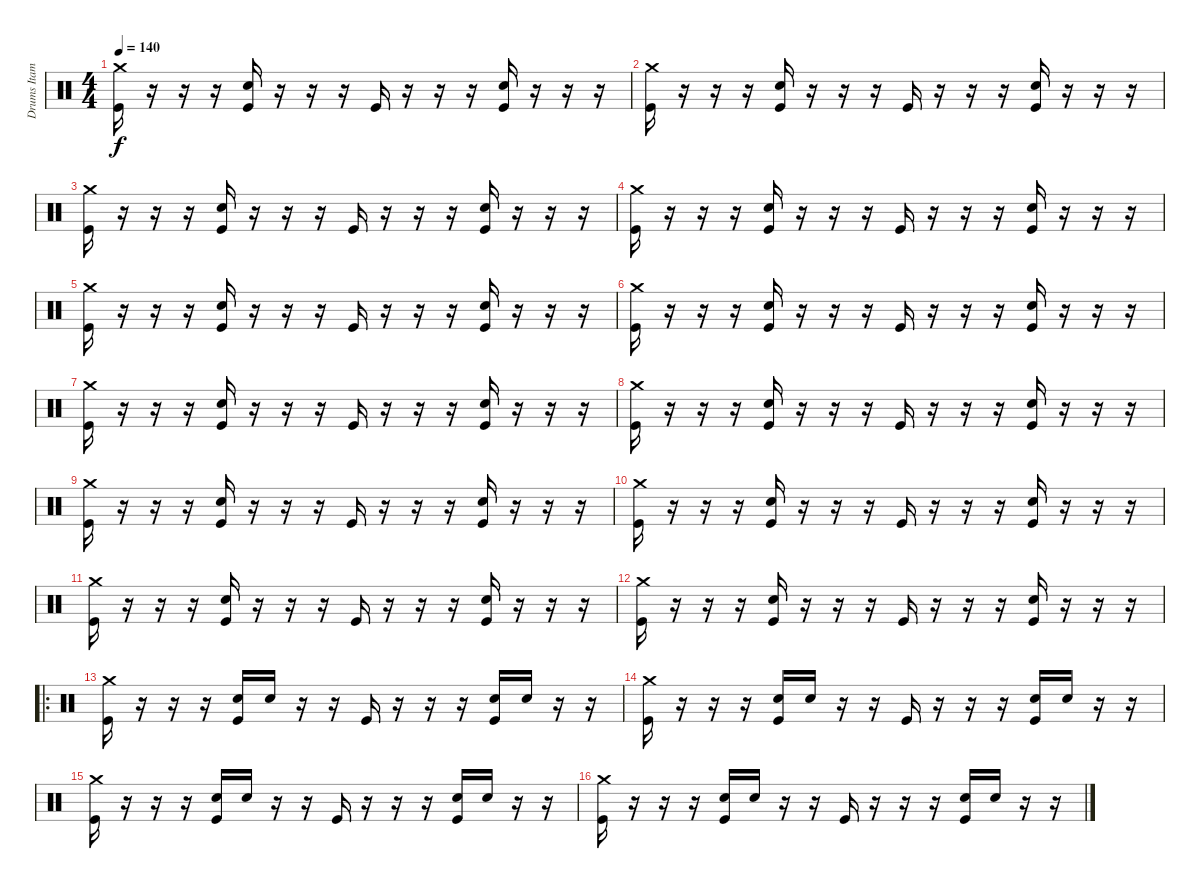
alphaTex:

\track ("Drums Itamar" "Drums Itam") {instrument percussion}
\staff {score}
\articulation defaults
\ts (4 4)
\tempo 140
\clef neutral
\ks c
("Kick (hit)" "Crash medium (hit)").16{dy f} r.16 r.16 r.16 ("Kick (hit)" "Snare (hit) 2").16 r.16 r.16 r.16 "Kick (hit)".16 r.16 r.16 r.16 ("Kick (hit)" "Snare (hit) 2").16 r.16 r.16 r.16 |
("Kick (hit)" "Crash medium (hit)").16 r.16 r.16 r.16 ("Kick (hit)" "Snare (hit) 2").16 r.16 r.16 r.16 "Kick (hit)".16 r.16 r.16 r.16 ("Kick (hit)" "Snare (hit) 2").16 r.16 r.16 r.16 |
("Kick (hit)" "Crash medium (hit)").16 r.16 r.16 r.16 ("Kick (hit)" "Snare (hit) 2").16 r.16 r.16 r.16 "Kick (hit)".16 r.16 r.16 r.16 ("Kick (hit)" "Snare (hit) 2").16 r.16 r.16 r.16 |
("Kick (hit)" "Crash medium (hit)").16 r.16 r.16 r.16 ("Kick (hit)" "Snare (hit) 2").16 r.16 r.16 r.16 "Kick (hit)".16 r.16 r.16 r.16 ("Kick (hit)" "Snare (hit) 2").16 r.16 r.16 r.16 |
("Kick (hit)" "Crash medium (hit)").16 r.16 r.16 r.16 ("Kick (hit)" "Snare (hit) 2").16 r.16 r.16 r.16 "Kick (hit)".16 r.16 r.16 r.16 ("Kick (hit)" "Snare (hit) 2").16 r.16 r.16 r.16 |
("Kick (hit)" "Crash medium (hit)").16 r.16 r.16 r.16 ("Kick (hit)" "Snare (hit) 2").16 r.16 r.16 r.16 "Kick (hit)".16 r.16 r.16 r.16 ("Kick (hit)" "Snare (hit) 2").16 r.16 r.16 r.16 |
("Kick (hit)" "Crash medium (hit)").16 r.16 r.16 r.16 ("Kick (hit)" "Snare (hit) 2").16 r.16 r.16 r.16 "Kick (hit)".16 r.16 r.16 r.16 ("Kick (hit)" "Snare (hit) 2").16 r.16 r.16 r.16 |
("Kick (hit)" "Crash medium (hit)").16 r.16 r.16 r.16 ("Kick (hit)" "Snare (hit) 2").16 r.16 r.16 r.16 "Kick (hit)".16 r.16 r.16 r.16 ("Kick (hit)" "Snare (hit) 2").16 r.16 r.16 r.16 |
("Kick (hit)" "Crash medium (hit)").16 r.16 r.16 r.16 ("Kick (hit)" "Snare (hit) 2").16 r.16 r.16 r.16 "Kick (hit)".16 r.16 r.16 r.16 ("Kick (hit)" "Snare (hit) 2").16 r.16 r.16 r.16 |
("Kick (hit)" "Crash medium (hit)").16 r.16 r.16 r.16 ("Kick (hit)" "Snare (hit) 2").16 r.16 r.16 r.16 "Kick (hit)".16 r.16 r.16 r.16 ("Kick (hit)" "Snare (hit) 2").16 r.16 r.16 r.16 |
("Kick (hit)" "Crash medium (hit)").16 r.16 r.16 r.16 ("Kick (hit)" "Snare (hit) 2").16 r.16 r.16 r.16 "Kick (hit)".16 r.16 r.16 r.16 ("Kick (hit)" "Snare (hit) 2").16 r.16 r.16 r.16 |
("Kick (hit)" "Crash medium (hit)").16 r.16 r.16 r.16 ("Kick (hit)" "Snare (hit) 2").16 r.16 r.16 r.16 "Kick (hit)".16 r.16 r.16 r.16 ("Kick (hit)" "Snare (hit) 2").16 r.16 r.16 r.16 |
\ro
("Kick (hit)" "Crash medium (hit)").16 r.16 r.16 r.16 ("Kick (hit)" "Snare (hit) 2").16 "Snare (hit) 2".16 r.16 r.16 "Kick (hit)".16 r.16 r.16 r.16 ("Kick (hit)" "Snare (hit) 2").16 "Snare (hit) 2".16 r.16 r.16 |
("Kick (hit)" "Crash medium (hit)").16 r.16 r.16 r.16 ("Kick (hit)" "Snare (hit) 2").16 "Snare (hit) 2".16 r.16 r.16 "Kick (hit)".16 r.16 r.16 r.16 ("Kick (hit)" "Snare (hit) 2").16 "Snare (hit) 2".16 r.16 r.16 |
("Kick (hit)" "Crash medium (hit)").16 r.16 r.16 r.16 ("Kick (hit)" "Snare (hit) 2").16 "Snare (hit) 2".16 r.16 r.16 "Kick (hit)".16 r.16 r.16 r.16 ("Kick (hit)" "Snare (hit) 2").16 "Snare (hit) 2".16 r.16 r.16 |
("Kick (hit)" "Crash medium (hit)").16 r.16 r.16 r.16 ("Kick (hit)" "Snare (hit) 2").16 "Snare (hit) 2".16 r.16 r.16 "Kick (hit)".16 r.16 r.16 r.16 ("Kick (hit)" "Snare (hit) 2").16 "Snare (hit) 2".16 r.16 r.16
